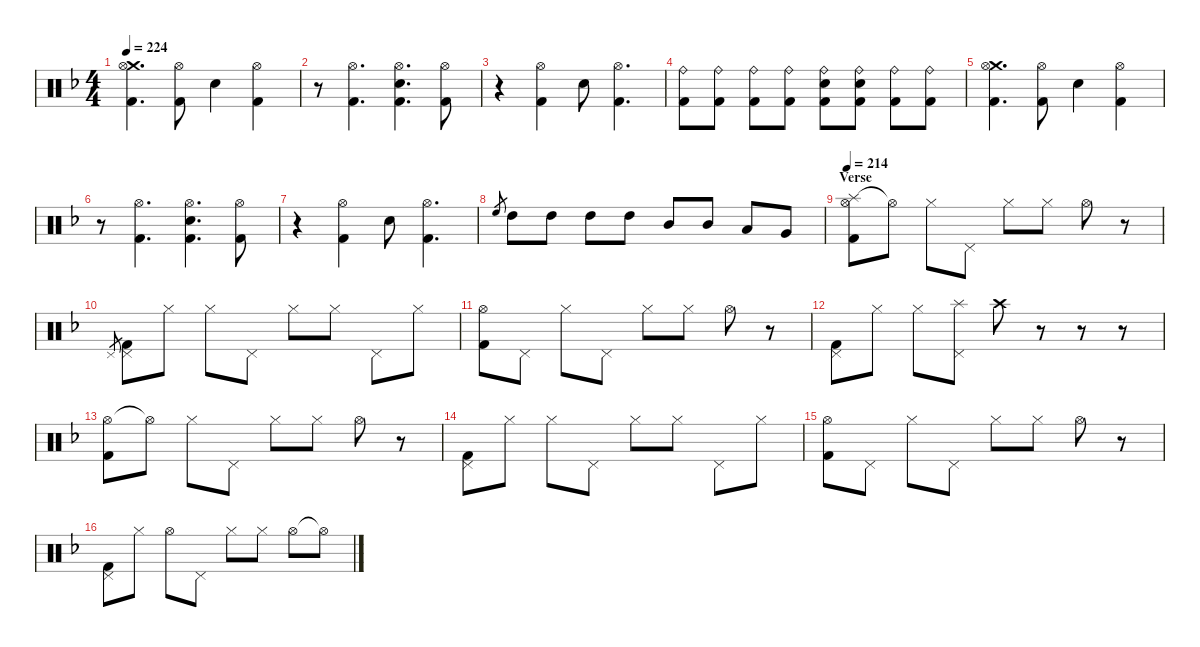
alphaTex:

\hideDynamics
\bracketExtendMode nobrackets
\singleTrackTrackNamePolicy hidden
\multiTrackTrackNamePolicy hidden
\firstSystemTrackNameMode fullname
\firstSystemTrackNameOrientation horizontal
\otherSystemsTrackNameOrientation horizontal
\track ("Drumkit" "Drums") {defaultSystemsLayout 4 instrument percussion}
\staff {score}
\articulation defaults
\ts (4 4)
\tempo 224
\clef neutral
\ks dminor
("Crash medium (hit)"{acc forcenatural} "Hi-Hat (open)"{acc forcenatural} "Kick (hit) 2"{acc forcenatural}).4{d dy f beam Down} ("Hi-Hat (open)"{acc forcenatural} "Kick (hit) 2"{acc forcenatural}).8{beam Down} "Snare (hit) 2"{acc forcenatural}.4{beam Down} ("Hi-Hat (open)"{acc forcenatural} "Kick (hit) 2"{acc forcenatural}).4{beam Down} |
r.8{beam Down} ("Hi-Hat (open)"{acc forcenatural} "Kick (hit) 2"{acc forcenatural}).4{d beam Down} ("Hi-Hat (open)"{acc forcenatural} "Snare (hit) 2"{acc forcenatural} "Kick (hit) 2"{acc forcenatural}).4{d beam Down} ("Hi-Hat (open)"{acc forcenatural} "Kick (hit) 2"{acc forcenatural}).8{beam Down} |
r.4{beam Down} ("Hi-Hat (open)"{acc forcenatural} "Kick (hit) 2"{acc forcenatural}).4{beam Down} "Snare (hit) 2"{acc forcenatural}.8{beam Down} ("Hi-Hat (open)"{acc forcenatural} "Kick (hit) 2"{acc forcenatural}).4{d beam Down} |
("Ride (bell)"{acc forcenatural} "Kick (hit) 2"{acc forcenatural}).8{beam Down} ("Ride (bell)"{acc forcenatural} "Kick (hit) 2"{acc forcenatural}).8{beam Down} ("Ride (bell)"{acc forcenatural} "Kick (hit) 2"{acc forcenatural}).8{dy mp beam Down} ("Ride (bell)"{acc forcenatural} "Kick (hit) 2"{acc forcenatural}).8{beam Down} ("Ride (bell)"{acc forcenatural} "Snare (hit) 2"{acc forcenatural} "Kick (hit) 2"{acc forcenatural}).8{dy f beam Down} ("Ride (bell)"{acc forcenatural} "Snare (hit) 2"{acc forcenatural} "Kick (hit) 2"{acc forcenatural}).8{beam Down} ("Ride (bell)"{acc forcenatural} "Kick (hit) 2"{acc forcenatural}).8{dy mp beam Down} ("Ride (bell)"{acc forcenatural} "Kick (hit) 2"{acc forcenatural}).8{beam Down} |
("Crash medium (hit)"{acc forcenatural} "Hi-Hat (open)"{acc forcenatural} "Kick (hit) 2"{acc forcenatural}).4{d dy f beam Down} ("Hi-Hat (open)"{acc forcenatural} "Kick (hit) 2"{acc forcenatural}).8{beam Down} "Snare (hit) 2"{acc forcenatural}.4{beam Down} ("Hi-Hat (open)"{acc forcenatural} "Kick (hit) 2"{acc forcenatural}).4{beam Down} |
r.8{beam Down} ("Hi-Hat (open)"{acc forcenatural} "Kick (hit) 2"{acc forcenatural}).4{d beam Down} ("Hi-Hat (open)"{acc forcenatural} "Snare (hit) 2"{acc forcenatural} "Kick (hit) 2"{acc forcenatural}).4{d beam Down} ("Hi-Hat (open)"{acc forcenatural} "Kick (hit) 2"{acc forcenatural}).8{beam Down} |
r.4{beam Down} ("Hi-Hat (open)"{acc forcenatural} "Kick (hit) 2"{acc forcenatural}).4{beam Down} "Snare (hit) 2"{acc forcenatural}.8{beam Down} ("Hi-Hat (open)"{acc forcenatural} "Kick (hit) 2"{acc forcenatural}).4{d beam Down} |
"High Floor Tom (hit)"{acc forcenatural}.8{gr dy mp beam Up} "High Tom (hit)"{acc forcenatural}.8{dy f beam Down} "High Tom (hit)"{acc forcenatural}.8{beam Down} "High Tom (hit)"{acc forcenatural}.8{beam Down} "High Tom (hit)"{acc forcenatural}.8{beam Down} "Mid Tom (hit)"{acc forcenatural}.8{beam Up} "Mid Tom (hit)"{acc forcenatural}.8{beam Up} "Low Tom (hit)"{acc forcenatural}.8{beam Up} "Very Low Tom (hit)"{acc forcenatural}.8{beam Up} |
\section ("" "Verse")
\tempo 214
("Splash (hit)"{acc forcenatural} "Hi-Hat (open)"{acc forcenatural} "Kick (hit) 2"{acc forcenatural}).8{dy mp beam Down} "Hi-Hat (open)"{t acc forcenatural}.8{beam Down} "Hi-Hat (closed)"{acc forcenatural}.8{dy p beam Down} "Pedal Hi-Hat (hit)"{acc forcenatural}.8{beam Down} "Hi-Hat (closed)"{acc forcenatural}.8{dy mp beam Down} "Hi-Hat (closed)"{acc forcenatural}.8{beam Down} "Hi-Hat (open)"{acc forcenatural}.8{beam Down} r.8{beam Down} |
"Pedal Hi-Hat (hit)"{acc forcenatural}.8{gr dy p beam Up} ("Pedal Hi-Hat (hit)"{acc forcenatural} "Kick (hit) 2"{acc forcenatural}).8{beam Down} "Hi-Hat (closed)"{acc forcenatural}.8{beam Down} "Hi-Hat (closed)"{acc forcenatural}.8{dy mp beam Down} "Pedal Hi-Hat (hit)"{acc forcenatural}.8{dy mf beam Down} "Hi-Hat (closed)"{acc forcenatural}.8{dy mp beam Down} "Hi-Hat (closed)"{acc forcenatural}.8{beam Down} "Pedal Hi-Hat (hit)"{acc forcenatural}.8{dy p beam Down} "Hi-Hat (closed)"{acc forcenatural}.8{beam Down} |
("Hi-Hat (open)"{acc forcenatural} "Kick (hit) 2"{acc forcenatural}).8{dy mp beam Down} "Pedal Hi-Hat (hit)"{acc forcenatural}.8{beam Down} "Hi-Hat (closed)"{acc forcenatural}.8{dy p beam Down} "Pedal Hi-Hat (hit)"{acc forcenatural}.8{beam Down} "Hi-Hat (closed)"{acc forcenatural}.8{dy mp beam Down} "Hi-Hat (closed)"{acc forcenatural}.8{beam Down} "Hi-Hat (open)"{acc forcenatural}.8{beam Down} r.8{beam Down} |
("Pedal Hi-Hat (hit)"{acc forcenatural} "Kick (hit) 2"{acc forcenatural}).8{dy p beam Down} "Hi-Hat (closed)"{acc forcenatural}.8{beam Down} "Hi-Hat (closed)"{acc forcenatural}.8{dy mp beam Down} ("Splash (hit)"{acc forcenatural} "Pedal Hi-Hat (hit)"{acc forcenatural}).8{dy mf beam Down} "Crash high (hit)"{acc forcenatural}.8{dy mp beam Down} r.8{beam Down} r.8{beam Down} r.8{beam Down} |
("Hi-Hat (open)"{acc forcenatural} "Kick (hit) 2"{acc forcenatural}).8{beam Down} "Hi-Hat (open)"{t acc forcenatural}.8{beam Down} "Hi-Hat (closed)"{acc forcenatural}.8{dy p beam Down} "Pedal Hi-Hat (hit)"{acc forcenatural}.8{beam Down} "Hi-Hat (closed)"{acc forcenatural}.8{dy mp beam Down} "Hi-Hat (closed)"{acc forcenatural}.8{beam Down} "Hi-Hat (open)"{acc forcenatural}.8{beam Down} r.8{beam Down} |
("Pedal Hi-Hat (hit)"{acc forcenatural} "Kick (hit) 2"{acc forcenatural}).8{dy p beam Down} "Hi-Hat (closed)"{acc forcenatural}.8{beam Down} "Hi-Hat (closed)"{acc forcenatural}.8{dy mp beam Down} "Pedal Hi-Hat (hit)"{acc forcenatural}.8{dy mf beam Down} "Hi-Hat (closed)"{acc forcenatural}.8{dy mp beam Down} "Hi-Hat (closed)"{acc forcenatural}.8{beam Down} "Pedal Hi-Hat (hit)"{acc forcenatural}.8{dy p beam Down} "Hi-Hat (closed)"{acc forcenatural}.8{beam Down} |
("Hi-Hat (open)"{acc forcenatural} "Kick (hit) 2"{acc forcenatural}).8{dy mp beam Down} "Pedal Hi-Hat (hit)"{acc forcenatural}.8{beam Down} "Hi-Hat (closed)"{acc forcenatural}.8{dy p beam Down} "Pedal Hi-Hat (hit)"{acc forcenatural}.8{beam Down} "Hi-Hat (closed)"{acc forcenatural}.8{dy mp beam Down} "Hi-Hat (closed)"{acc forcenatural}.8{beam Down} "Hi-Hat (open)"{acc forcenatural}.8{beam Down} r.8{beam Down} |
("Pedal Hi-Hat (hit)"{acc forcenatural} "Kick (hit) 2"{acc forcenatural}).8{dy p beam Down} "Hi-Hat (closed)"{acc forcenatural}.8{beam Down} "Hi-Hat (open)"{acc forcenatural}.8{dy mp beam Down} "Pedal Hi-Hat (hit)"{acc forcenatural}.8{dy f beam Down} "Hi-Hat (closed)"{acc forcenatural}.8{dy mp beam Down} "Hi-Hat (closed)"{acc forcenatural}.8{beam Down} "Hi-Hat (open)"{acc forcenatural}.8{dy p beam Down} "Hi-Hat (open)"{t acc forcenatural}.8{beam Down}
